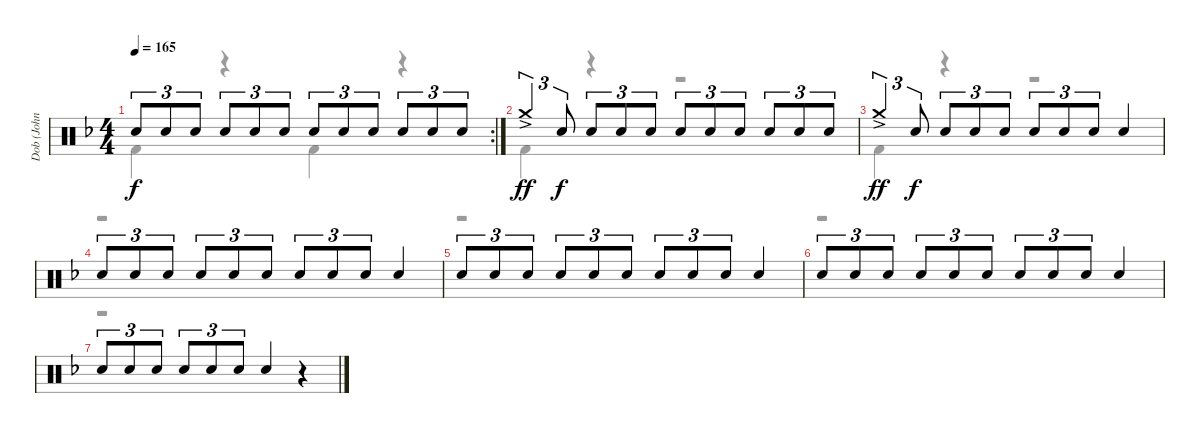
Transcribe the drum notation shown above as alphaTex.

\track ("Dob (John O’Reilly)" "Dob (John ") {instrument percussion}
\staff {score}
\articulation defaults
\voice
\rc 2
\ts (4 4)
\tempo 165
\clef neutral
\ks f "Electric Snare (hit)".8{tu (3 2) dy f} "Electric Snare (hit)".8{tu (3 2)} "Electric Snare (hit)".8{tu (3 2)} "Electric Snare (hit)".8{tu (3 2)} "Electric Snare (hit)".8{tu (3 2)} "Electric Snare (hit)".8{tu (3 2)} "Electric Snare (hit)".8{tu (3 2)} "Electric Snare (hit)".8{tu (3 2)} "Electric Snare (hit)".8{tu (3 2)} "Electric Snare (hit)".8{tu (3 2)} "Electric Snare (hit)".8{tu (3 2)} "Electric Snare (hit)".8{tu (3 2)}
|
"Crash medium (hit)"{ac}.4{tu (3 2) dy ff} "Electric Snare (hit)".8{tu (3 2) dy f} "Electric Snare (hit)".8{tu (3 2)} "Electric Snare (hit)".8{tu (3 2)} "Electric Snare (hit)".8{tu (3 2)} "Electric Snare (hit)".8{tu (3 2)} "Electric Snare (hit)".8{tu (3 2)} "Electric Snare (hit)".8{tu (3 2)} "Electric Snare (hit)".8{tu (3 2)} "Electric Snare (hit)".8{tu (3 2)} "Electric Snare (hit)".8{tu (3 2)} |
"Crash medium (hit)"{ac}.4{tu (3 2) dy ff} "Electric Snare (hit)".8{tu (3 2) dy f} "Electric Snare (hit)".8{tu (3 2)} "Electric Snare (hit)".8{tu (3 2)} "Electric Snare (hit)".8{tu (3 2)} "Electric Snare (hit)".8{tu (3 2)} "Electric Snare (hit)".8{tu (3 2)} "Electric Snare (hit)".8{tu (3 2)} "Electric Snare (hit)".4 |
"Electric Snare (hit)".8{tu (3 2)} "Electric Snare (hit)".8{tu (3 2)} "Electric Snare (hit)".8{tu (3 2)} "Electric Snare (hit)".8{tu (3 2)} "Electric Snare (hit)".8{tu (3 2)} "Electric Snare (hit)".8{tu (3 2)} "Electric Snare (hit)".8{tu (3 2)} "Electric Snare (hit)".8{tu (3 2)} "Electric Snare (hit)".8{tu (3 2)} "Electric Snare (hit)".4 |
"Electric Snare (hit)".8{tu (3 2)} "Electric Snare (hit)".8{tu (3 2)} "Electric Snare (hit)".8{tu (3 2)} "Electric Snare (hit)".8{tu (3 2)} "Electric Snare (hit)".8{tu (3 2)} "Electric Snare (hit)".8{tu (3 2)} "Electric Snare (hit)".8{tu (3 2)} "Electric Snare (hit)".8{tu (3 2)} "Electric Snare (hit)".8{tu (3 2)} "Electric Snare (hit)".4 |
"Electric Snare (hit)".8{tu (3 2)} "Electric Snare (hit)".8{tu (3 2)} "Electric Snare (hit)".8{tu (3 2)} "Electric Snare (hit)".8{tu (3 2)} "Electric Snare (hit)".8{tu (3 2)} "Electric Snare (hit)".8{tu (3 2)} "Electric Snare (hit)".8{tu (3 2)} "Electric Snare (hit)".8{tu (3 2)} "Electric Snare (hit)".8{tu (3 2)} "Electric Snare (hit)".4 |
"Electric Snare (hit)".8{tu (3 2)} "Electric Snare (hit)".8{tu (3 2)} "Electric Snare (hit)".8{tu (3 2)} "Electric Snare (hit)".8{tu (3 2)} "Electric Snare (hit)".8{tu (3 2)} "Electric Snare (hit)".8{tu (3 2)} "Electric Snare (hit)".4 r.4 |
\voice
\clef neutral
\ottava regular
\simile none
\ks f "Kick (hit) 2".4{dy f}
r.4 "Kick (hit) 2".4 r.4 |
"Kick (hit) 2".4 r.4 r.2 |
"Kick (hit) 2".4 r.4 r.2 |
r.1 |
r.1 |
r.1 |
r.1 |
